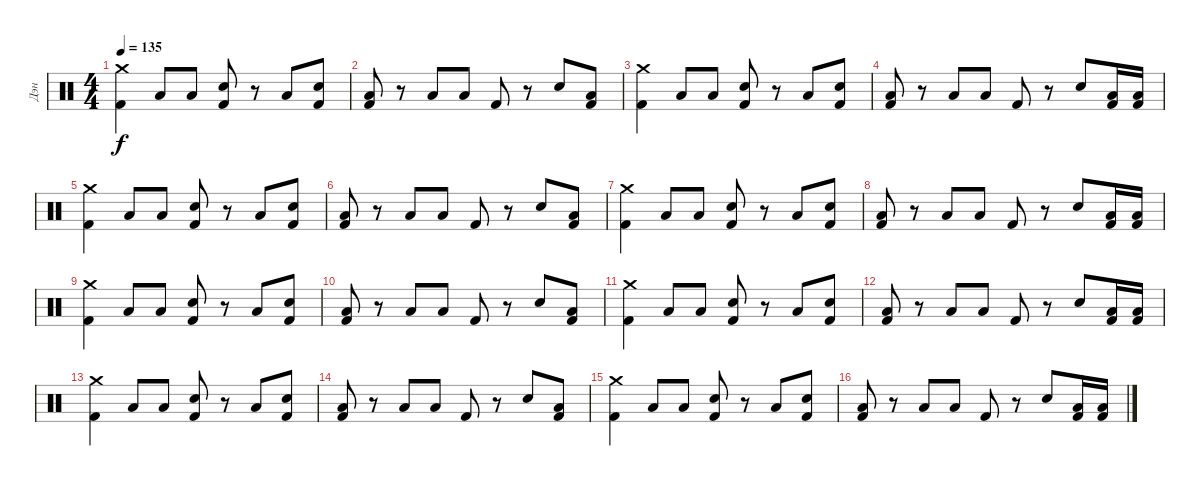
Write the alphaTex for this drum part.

\track ("Дэн" "Дэн") {instrument percussion}
\staff {score}
\articulation defaults
\ts (4 4)
\tempo 135
\clef neutral
\ks c
("Kick (hit) 2" "Crash medium (hit)").4{dy f} "Low Tom (hit)".8 "Low Tom (hit)".8 ("Snare (hit) 2" "Kick (hit) 2").8 r.8 "Low Tom (hit)".8 ("Snare (hit) 2" "Kick (hit) 2").8 |
("Low Tom (hit)" "Kick (hit) 2").8 r.8 "Low Tom (hit)".8 "Low Tom (hit)".8 "Kick (hit) 2".8 r.8 "Snare (hit) 2".8 ("Low Tom (hit)" "Kick (hit) 2").8 |
("Kick (hit) 2" "Crash medium (hit)").4 "Low Tom (hit)".8 "Low Tom (hit)".8 ("Snare (hit) 2" "Kick (hit) 2").8 r.8 "Low Tom (hit)".8 ("Snare (hit) 2" "Kick (hit) 2").8 |
("Low Tom (hit)" "Kick (hit) 2").8 r.8 "Low Tom (hit)".8 "Low Tom (hit)".8 "Kick (hit) 2".8 r.8 "Snare (hit) 2".8 ("Low Tom (hit)" "Kick (hit) 2").16 ("Low Tom (hit)" "Kick (hit) 2").16 |
("Kick (hit) 2" "Crash medium (hit)").4 "Low Tom (hit)".8 "Low Tom (hit)".8 ("Snare (hit) 2" "Kick (hit) 2").8 r.8 "Low Tom (hit)".8 ("Snare (hit) 2" "Kick (hit) 2").8 |
("Low Tom (hit)" "Kick (hit) 2").8 r.8 "Low Tom (hit)".8 "Low Tom (hit)".8 "Kick (hit) 2".8 r.8 "Snare (hit) 2".8 ("Low Tom (hit)" "Kick (hit) 2").8 |
("Kick (hit) 2" "Crash medium (hit)").4 "Low Tom (hit)".8 "Low Tom (hit)".8 ("Snare (hit) 2" "Kick (hit) 2").8 r.8 "Low Tom (hit)".8 ("Snare (hit) 2" "Kick (hit) 2").8 |
("Low Tom (hit)" "Kick (hit) 2").8 r.8 "Low Tom (hit)".8 "Low Tom (hit)".8 "Kick (hit) 2".8 r.8 "Snare (hit) 2".8 ("Low Tom (hit)" "Kick (hit) 2").16 ("Low Tom (hit)" "Kick (hit) 2").16 |
("Kick (hit) 2" "Crash medium (hit)").4 "Low Tom (hit)".8 "Low Tom (hit)".8 ("Snare (hit) 2" "Kick (hit) 2").8 r.8 "Low Tom (hit)".8 ("Snare (hit) 2" "Kick (hit) 2").8 |
("Low Tom (hit)" "Kick (hit) 2").8 r.8 "Low Tom (hit)".8 "Low Tom (hit)".8 "Kick (hit) 2".8 r.8 "Snare (hit) 2".8 ("Low Tom (hit)" "Kick (hit) 2").8 |
("Kick (hit) 2" "Crash medium (hit)").4 "Low Tom (hit)".8 "Low Tom (hit)".8 ("Snare (hit) 2" "Kick (hit) 2").8 r.8 "Low Tom (hit)".8 ("Snare (hit) 2" "Kick (hit) 2").8 |
("Low Tom (hit)" "Kick (hit) 2").8 r.8 "Low Tom (hit)".8 "Low Tom (hit)".8 "Kick (hit) 2".8 r.8 "Snare (hit) 2".8 ("Low Tom (hit)" "Kick (hit) 2").16 ("Low Tom (hit)" "Kick (hit) 2").16 |
("Kick (hit) 2" "Crash medium (hit)").4 "Low Tom (hit)".8 "Low Tom (hit)".8 ("Snare (hit) 2" "Kick (hit) 2").8 r.8 "Low Tom (hit)".8 ("Snare (hit) 2" "Kick (hit) 2").8 |
("Low Tom (hit)" "Kick (hit) 2").8 r.8 "Low Tom (hit)".8 "Low Tom (hit)".8 "Kick (hit) 2".8 r.8 "Snare (hit) 2".8 ("Low Tom (hit)" "Kick (hit) 2").8 |
("Kick (hit) 2" "Crash medium (hit)").4 "Low Tom (hit)".8 "Low Tom (hit)".8 ("Snare (hit) 2" "Kick (hit) 2").8 r.8 "Low Tom (hit)".8 ("Snare (hit) 2" "Kick (hit) 2").8 |
("Low Tom (hit)" "Kick (hit) 2").8 r.8 "Low Tom (hit)".8 "Low Tom (hit)".8 "Kick (hit) 2".8 r.8 "Snare (hit) 2".8 ("Low Tom (hit)" "Kick (hit) 2").16 ("Low Tom (hit)" "Kick (hit) 2").16
